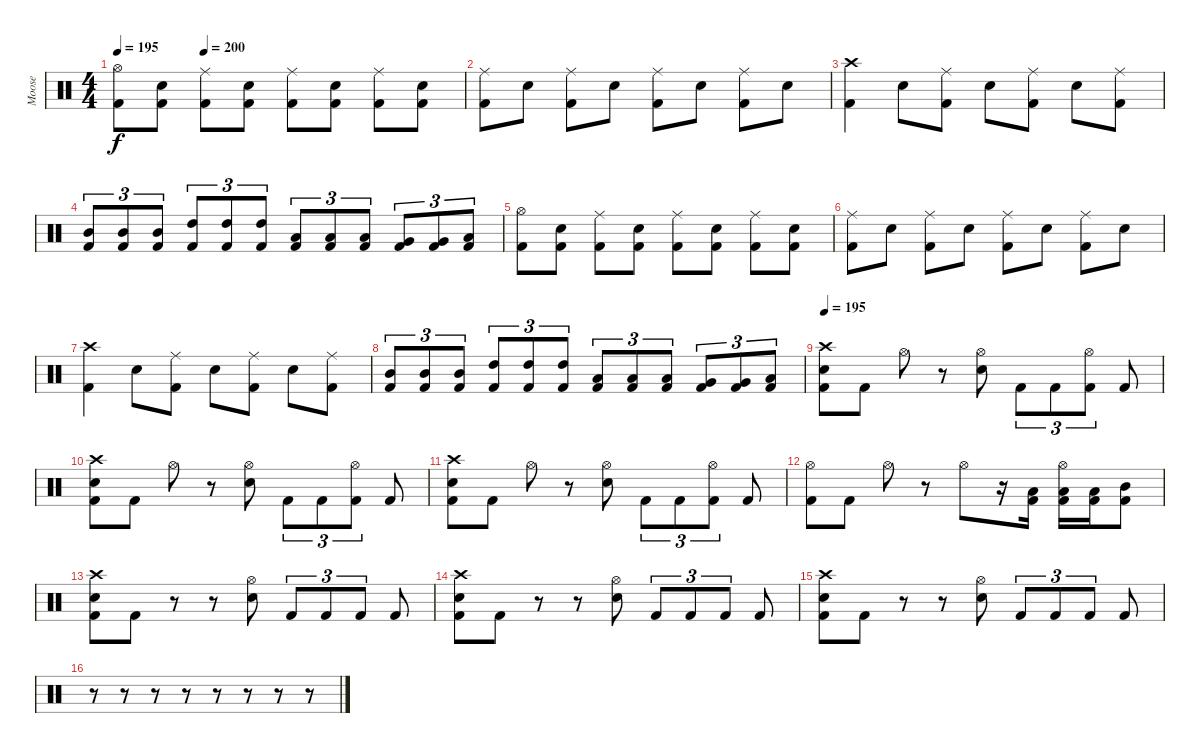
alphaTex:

\track ("Moose" "Moose") {instrument percussion}
\staff {score}
\articulation defaults
\ts (4 4)
\tempo 195
\tempo (200 0.25)
\clef neutral
\ks c
("Hi-Hat (open)" "Kick (hit) 2").8{dy f} ("Snare (hit) 2" "Kick (hit) 2").8 ("Ride (middle)" "Kick (hit) 2").8 ("Snare (hit) 2" "Kick (hit) 2").8 ("Ride (middle)" "Kick (hit) 2").8 ("Snare (hit) 2" "Kick (hit) 2").8 ("Ride (middle)" "Kick (hit) 2").8 ("Snare (hit) 2" "Kick (hit) 2").8 |
("Ride (middle)" "Kick (hit) 2").8 "Snare (hit) 2".8 ("Ride (middle)" "Kick (hit) 2").8 "Snare (hit) 2".8 ("Ride (middle)" "Kick (hit) 2").8 "Snare (hit) 2".8 ("Ride (middle)" "Kick (hit) 2").8 "Snare (hit) 2".8 |
("Crash high (hit)" "Kick (hit) 2").4 "Snare (hit) 2".8 ("Ride (middle)" "Kick (hit) 2").8 "Snare (hit) 2".8 ("Ride (middle)" "Kick (hit) 2").8 "Snare (hit) 2".8 ("Ride (middle)" "Kick (hit) 2").8 |
("Mid Tom (hit)" "Kick (hit) 2").8{tu (3 2)} ("Mid Tom (hit)" "Kick (hit) 2").8{tu (3 2)} ("Mid Tom (hit)" "Kick (hit) 2").8{tu (3 2)} ("High Tom (hit)" "Kick (hit) 2").8{tu (3 2)} ("High Tom (hit)" "Kick (hit) 2").8{tu (3 2)} ("High Tom (hit)" "Kick (hit) 2").8{tu (3 2)} ("Low Tom (hit)" "Kick (hit) 2").8{tu (3 2)} ("Low Tom (hit)" "Kick (hit) 2").8{tu (3 2)} ("Low Tom (hit)" "Kick (hit) 2").8{tu (3 2)} ("Very Low Tom (hit)" "Kick (hit) 2").8{tu (3 2)} ("Very Low Tom (hit)" "Kick (hit) 2").8{tu (3 2)} ("Low Floor Tom (hit)" "Kick (hit) 2").8{tu (3 2)} |
("Hi-Hat (open)" "Kick (hit) 2").8 ("Snare (hit) 2" "Kick (hit) 2").8 ("Ride (middle)" "Kick (hit) 2").8 ("Snare (hit) 2" "Kick (hit) 2").8 ("Ride (middle)" "Kick (hit) 2").8 ("Snare (hit) 2" "Kick (hit) 2").8 ("Ride (middle)" "Kick (hit) 2").8 ("Snare (hit) 2" "Kick (hit) 2").8 |
("Ride (middle)" "Kick (hit) 2").8 "Snare (hit) 2".8 ("Ride (middle)" "Kick (hit) 2").8 "Snare (hit) 2".8 ("Ride (middle)" "Kick (hit) 2").8 "Snare (hit) 2".8 ("Ride (middle)" "Kick (hit) 2").8 "Snare (hit) 2".8 |
("Crash high (hit)" "Kick (hit) 2").4 "Snare (hit) 2".8 ("Ride (middle)" "Kick (hit) 2").8 "Snare (hit) 2".8 ("Ride (middle)" "Kick (hit) 2").8 "Snare (hit) 2".8 ("Ride (middle)" "Kick (hit) 2").8 |
("Mid Tom (hit)" "Kick (hit) 2").8{tu (3 2)} ("Mid Tom (hit)" "Kick (hit) 2").8{tu (3 2)} ("Mid Tom (hit)" "Kick (hit) 2").8{tu (3 2)} ("High Tom (hit)" "Kick (hit) 2").8{tu (3 2)} ("High Tom (hit)" "Kick (hit) 2").8{tu (3 2)} ("High Tom (hit)" "Kick (hit) 2").8{tu (3 2)} ("Low Tom (hit)" "Kick (hit) 2").8{tu (3 2)} ("Low Tom (hit)" "Kick (hit) 2").8{tu (3 2)} ("Low Tom (hit)" "Kick (hit) 2").8{tu (3 2)} ("Very Low Tom (hit)" "Kick (hit) 2").8{tu (3 2)} ("Very Low Tom (hit)" "Kick (hit) 2").8{tu (3 2)} ("Low Floor Tom (hit)" "Kick (hit) 2").8{tu (3 2)} |
\tempo 195
("Crash high (hit)" "Snare (hit) 2" "Kick (hit) 2").8 "Kick (hit) 2".8 "Hi-Hat (open)".8 r.8 ("Hi-Hat (open)" "Snare (hit) 2").8 "Kick (hit) 2".8{tu (3 2)} "Kick (hit) 2".8{tu (3 2)} ("Hi-Hat (open)" "Kick (hit) 2").8{tu (3 2)} "Kick (hit) 2".8 |
("Crash high (hit)" "Snare (hit) 2" "Kick (hit) 2").8 "Kick (hit) 2".8 "Hi-Hat (open)".8 r.8 ("Hi-Hat (open)" "Snare (hit) 2").8 "Kick (hit) 2".8{tu (3 2)} "Kick (hit) 2".8{tu (3 2)} ("Hi-Hat (open)" "Kick (hit) 2").8{tu (3 2)} "Kick (hit) 2".8 |
("Crash high (hit)" "Snare (hit) 2" "Kick (hit) 2").8 "Kick (hit) 2".8 "Hi-Hat (open)".8 r.8 ("Hi-Hat (open)" "Snare (hit) 2").8 "Kick (hit) 2".8{tu (3 2)} "Kick (hit) 2".8{tu (3 2)} ("Hi-Hat (open)" "Kick (hit) 2").8{tu (3 2)} "Kick (hit) 2".8 |
("Hi-Hat (open)" "Kick (hit) 2").8 "Kick (hit) 2".8 "Hi-Hat (open)".8 r.8 "Hi-Hat (open)".8 r.16 ("Low Tom (hit)" "Kick (hit) 2").16 ("Hi-Hat (open)" "Low Tom (hit)" "Kick (hit) 2").16 ("Low Tom (hit)" "Kick (hit) 2").16 ("Mid Tom (hit)" "Kick (hit) 2").8 |
("Crash high (hit)" "Snare (hit) 2" "Kick (hit) 2").8 "Kick (hit) 2".8 r.8 r.8 ("Hi-Hat (open)" "Snare (hit) 2").8 "Kick (hit) 2".8{tu (3 2)} "Kick (hit) 2".8{tu (3 2)} "Kick (hit) 2".8{tu (3 2)} "Kick (hit) 2".8 |
("Crash high (hit)" "Snare (hit) 2" "Kick (hit) 2").8 "Kick (hit) 2".8 r.8 r.8 ("Hi-Hat (open)" "Snare (hit) 2").8 "Kick (hit) 2".8{tu (3 2)} "Kick (hit) 2".8{tu (3 2)} "Kick (hit) 2".8{tu (3 2)} "Kick (hit) 2".8 |
("Crash high (hit)" "Snare (hit) 2" "Kick (hit) 2").8 "Kick (hit) 2".8 r.8 r.8 ("Hi-Hat (open)" "Snare (hit) 2").8 "Kick (hit) 2".8{tu (3 2)} "Kick (hit) 2".8{tu (3 2)} "Kick (hit) 2".8{tu (3 2)} "Kick (hit) 2".8 |
r.8 r.8 r.8 r.8 r.8 r.8 r.8 r.8
